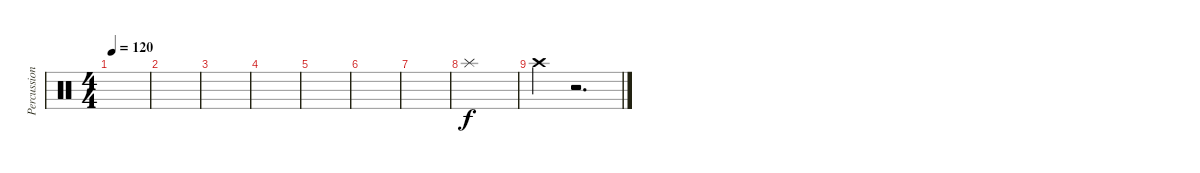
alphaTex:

\track ("Percussion" "Percussion") {instrument percussion}
\staff {score}
\articulation defaults
\ts (4 4)
\tempo 120
\clef neutral
\ks c
|
|
|
|
|
|
|
"Splash (hit)".1 |
"Crash high (hit)".4 r.2{d}
